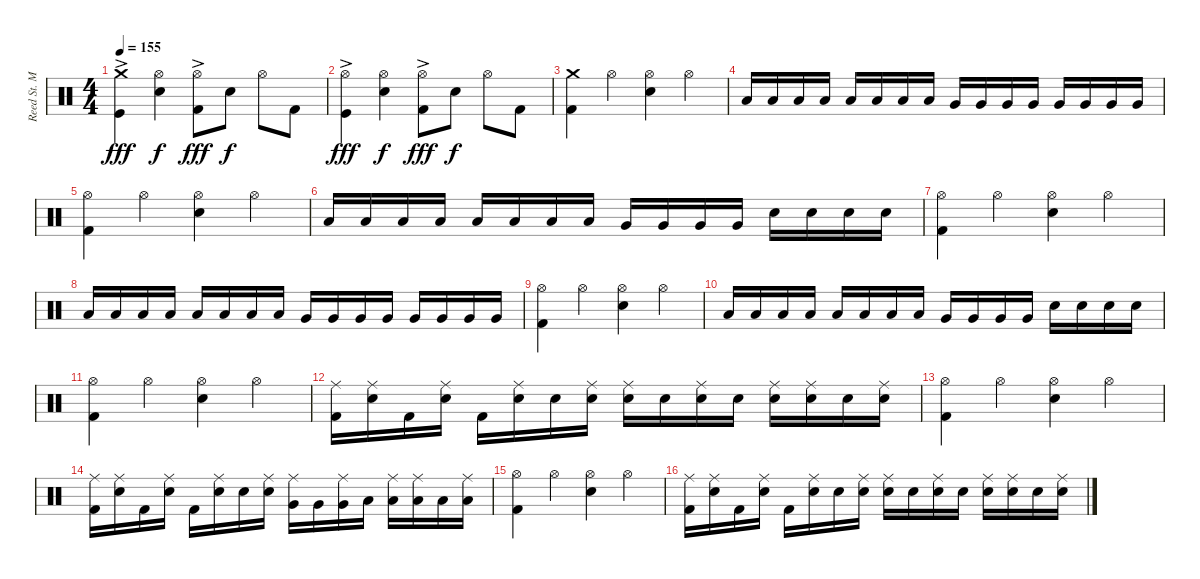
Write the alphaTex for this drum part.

\track ("Reed St. Mark" "Reed St. M") {instrument percussion}
\staff {score}
\articulation defaults
\ts (4 4)
\tempo 155
\clef neutral
\ks c
("Crash medium (hit)" "Kick (hit)"{ac}).4{dy fff} ("Hi-Hat (open)" "Snare (hit) 2").4{dy f} ("Hi-Hat (open)"{ac} "Kick (hit) 2").8{dy fff} "Snare (hit) 2".8{dy f} "Hi-Hat (open)".8 "Kick (hit) 2".8 |
("Hi-Hat (open)" "Kick (hit)"{ac}).4{dy fff} ("Hi-Hat (open)" "Snare (hit) 2").4{dy f} ("Hi-Hat (open)"{ac} "Kick (hit) 2").8{dy fff} "Snare (hit) 2".8{dy f} "Hi-Hat (open)".8 "Kick (hit) 2".8 |
("Crash medium (hit)" "Kick (hit) 2").4 "Hi-Hat (open)".4 ("Hi-Hat (open)" "Snare (hit) 2").4 "Hi-Hat (open)".4 |
"Low Tom (hit)".16 "Low Tom (hit)".16 "Low Tom (hit)".16 "Low Tom (hit)".16 "Low Tom (hit)".16 "Low Tom (hit)".16 "Low Tom (hit)".16 "Low Tom (hit)".16 "Very Low Tom (hit)".16 "Very Low Tom (hit)".16 "Very Low Tom (hit)".16 "Very Low Tom (hit)".16 "Very Low Tom (hit)".16 "Very Low Tom (hit)".16 "Very Low Tom (hit)".16 "Very Low Tom (hit)".16 |
("Hi-Hat (open)" "Kick (hit) 2").4 "Hi-Hat (open)".4 ("Hi-Hat (open)" "Snare (hit) 2").4 "Hi-Hat (open)".4 |
"Low Tom (hit)".16 "Low Tom (hit)".16 "Low Tom (hit)".16 "Low Tom (hit)".16 "Low Tom (hit)".16 "Low Tom (hit)".16 "Low Tom (hit)".16 "Low Tom (hit)".16 "Very Low Tom (hit)".16 "Very Low Tom (hit)".16 "Very Low Tom (hit)".16 "Very Low Tom (hit)".16 "Snare (hit) 2".16 "Snare (hit) 2".16 "Snare (hit) 2".16 "Snare (hit) 2".16 |
("Hi-Hat (open)" "Kick (hit) 2").4 "Hi-Hat (open)".4 ("Hi-Hat (open)" "Snare (hit) 2").4 "Hi-Hat (open)".4 |
"Low Tom (hit)".16 "Low Tom (hit)".16 "Low Tom (hit)".16 "Low Tom (hit)".16 "Low Tom (hit)".16 "Low Tom (hit)".16 "Low Tom (hit)".16 "Low Tom (hit)".16 "Very Low Tom (hit)".16 "Very Low Tom (hit)".16 "Very Low Tom (hit)".16 "Very Low Tom (hit)".16 "Very Low Tom (hit)".16 "Very Low Tom (hit)".16 "Very Low Tom (hit)".16 "Very Low Tom (hit)".16 |
("Hi-Hat (open)" "Kick (hit) 2").4 "Hi-Hat (open)".4 ("Hi-Hat (open)" "Snare (hit) 2").4 "Hi-Hat (open)".4 |
"Low Tom (hit)".16 "Low Tom (hit)".16 "Low Tom (hit)".16 "Low Tom (hit)".16 "Low Tom (hit)".16 "Low Tom (hit)".16 "Low Tom (hit)".16 "Low Tom (hit)".16 "Very Low Tom (hit)".16 "Very Low Tom (hit)".16 "Very Low Tom (hit)".16 "Very Low Tom (hit)".16 "Snare (hit) 2".16 "Snare (hit) 2".16 "Snare (hit) 2".16 "Snare (hit) 2".16 |
("Hi-Hat (open)" "Kick (hit) 2").4 "Hi-Hat (open)".4 ("Hi-Hat (open)" "Snare (hit) 2").4 "Hi-Hat (open)".4 |
("Ride (middle)" "Kick (hit) 2").16 ("Ride (middle)" "Snare (hit) 2").16 "Kick (hit) 2".16 ("Ride (middle)" "Snare (hit) 2").16 "Kick (hit) 2".16 ("Ride (middle)" "Snare (hit) 2").16 "Snare (hit) 2".16 ("Ride (middle)" "Snare (hit) 2").16 ("Ride (middle)" "Snare (hit) 2").16 "Snare (hit) 2".16 ("Ride (middle)" "Snare (hit) 2").16 "Snare (hit) 2".16 ("Ride (middle)" "Snare (hit) 2").16 ("Ride (middle)" "Snare (hit) 2").16 "Snare (hit) 2".16 ("Ride (middle)" "Snare (hit) 2").16 |
("Hi-Hat (open)" "Kick (hit) 2").4 "Hi-Hat (open)".4 ("Hi-Hat (open)" "Snare (hit) 2").4 "Hi-Hat (open)".4 |
("Ride (middle)" "Kick (hit) 2").16 ("Ride (middle)" "Snare (hit) 2").16 "Kick (hit) 2".16 ("Ride (middle)" "Snare (hit) 2").16 "Kick (hit) 2".16 ("Ride (middle)" "Snare (hit) 2").16 "Snare (hit) 2".16 ("Ride (middle)" "Snare (hit) 2").16 ("Ride (middle)" "Very Low Tom (hit)").16 "Very Low Tom (hit)".16 ("Ride (middle)" "Very Low Tom (hit)").16 "Low Tom (hit)".16 ("Ride (middle)" "Low Tom (hit)").16 ("Ride (middle)" "Low Tom (hit)").16 "Low Tom (hit)".16 ("Ride (middle)" "Low Tom (hit)").16 |
("Hi-Hat (open)" "Kick (hit) 2").4 "Hi-Hat (open)".4 ("Hi-Hat (open)" "Snare (hit) 2").4 "Hi-Hat (open)".4 |
("Ride (middle)" "Kick (hit) 2").16 ("Ride (middle)" "Snare (hit) 2").16 "Kick (hit) 2".16 ("Ride (middle)" "Snare (hit) 2").16 "Kick (hit) 2".16 ("Ride (middle)" "Snare (hit) 2").16 "Snare (hit) 2".16 ("Ride (middle)" "Snare (hit) 2").16 ("Ride (middle)" "Snare (hit) 2").16 "Snare (hit) 2".16 ("Ride (middle)" "Snare (hit) 2").16 "Snare (hit) 2".16 ("Ride (middle)" "Snare (hit) 2").16 ("Ride (middle)" "Snare (hit) 2").16 "Snare (hit) 2".16 ("Ride (middle)" "Snare (hit) 2").16
